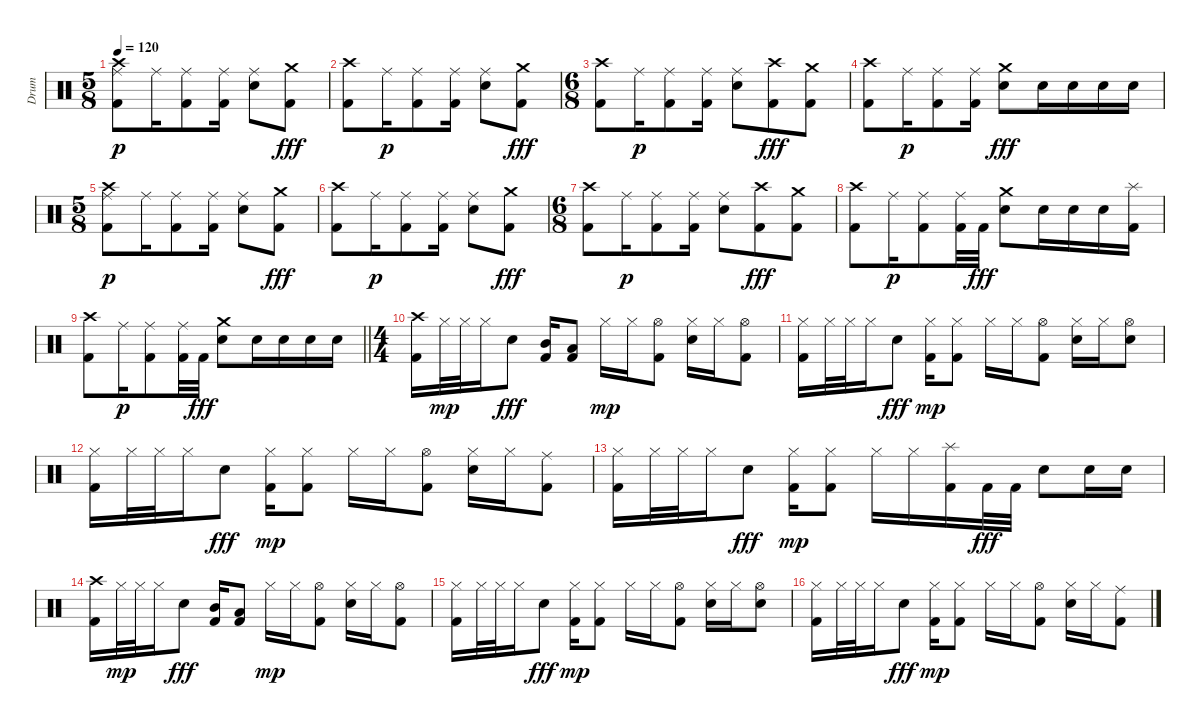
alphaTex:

\track ("Drum" "Drum") {instrument percussion}
\staff {score}
\articulation defaults
\ts (5 8)
\tempo 120
\clef neutral
\ks c
("Kick (hit) 2" "Ride (middle)" "Crash high (hit)").8{dy p} "Ride (middle)".16 ("Kick (hit) 2" "Ride (middle)").8 ("Kick (hit) 2" "Ride (middle)").16 ("Electric Snare (hit)" "Ride (middle)").8 ("Kick (hit) 2" "Crash medium (hit)").8{dy fff} |
("Kick (hit) 2" "Crash high (hit)").8 "Ride (middle)".16{dy p} ("Kick (hit) 2" "Ride (middle)").8 ("Kick (hit) 2" "Ride (middle)").16 ("Electric Snare (hit)" "Ride (middle)").8 ("Kick (hit) 2" "Crash medium (hit)").8{dy fff} |
\ts (6 8)
("Kick (hit) 2" "Crash high (hit)").8 "Ride (middle)".16{dy p} ("Kick (hit) 2" "Ride (middle)").8 ("Kick (hit) 2" "Ride (middle)").16 ("Electric Snare (hit)" "Ride (middle)").8 ("Kick (hit) 2" "Crash high (hit)").8{dy fff} ("Kick (hit) 2" "Crash medium (hit)").8 |
("Kick (hit) 2" "Crash high (hit)").8 "Ride (middle)".16{dy p} ("Kick (hit) 2" "Ride (middle)").8 ("Kick (hit) 2" "Ride (middle)").16 ("Electric Snare (hit)" "Crash medium (hit)").8{dy fff} "Electric Snare (hit)".16 "Electric Snare (hit)".16 "Electric Snare (hit)".16 "Electric Snare (hit)".16 |
\ts (5 8)
("Kick (hit) 2" "Ride (middle)" "Crash high (hit)").8{dy p} "Ride (middle)".16 ("Kick (hit) 2" "Ride (middle)").8 ("Kick (hit) 2" "Ride (middle)").16 ("Electric Snare (hit)" "Ride (middle)").8 ("Kick (hit) 2" "Crash medium (hit)").8{dy fff} |
("Kick (hit) 2" "Crash high (hit)").8 "Ride (middle)".16{dy p} ("Kick (hit) 2" "Ride (middle)").8 ("Kick (hit) 2" "Ride (middle)").16 ("Electric Snare (hit)" "Ride (middle)").8 ("Kick (hit) 2" "Crash medium (hit)").8{dy fff} |
\ts (6 8)
("Kick (hit) 2" "Crash high (hit)").8 "Ride (middle)".16{dy p} ("Kick (hit) 2" "Ride (middle)").8 ("Kick (hit) 2" "Ride (middle)").16 ("Electric Snare (hit)" "Ride (middle)").8 ("Kick (hit) 2" "Crash high (hit)").8{dy fff} ("Kick (hit) 2" "Crash medium (hit)").8 |
("Kick (hit) 2" "Crash high (hit)").8 "Ride (middle)".16{dy p} ("Kick (hit) 2" "Ride (middle)").8 ("Kick (hit) 2" "Ride (middle)").32 "Kick (hit) 2".32{dy fff} ("Electric Snare (hit)" "Crash medium (hit)").8 "Electric Snare (hit)".16 "Electric Snare (hit)".16 "Electric Snare (hit)".16 ("Kick (hit) 2" "Splash (hit)").16 |
\barLineRight lightlight
("Kick (hit) 2" "Crash high (hit)").8 "Ride (middle)".16{dy p} ("Kick (hit) 2" "Ride (middle)").8 ("Kick (hit) 2" "Ride (middle)").32 "Kick (hit) 2".32{dy fff} ("Electric Snare (hit)" "Crash medium (hit)").8 "Electric Snare (hit)".16 "Electric Snare (hit)".16 "Electric Snare (hit)".16 "Electric Snare (hit)".16 |
\ts (4 4)
("Kick (hit) 2" "Crash high (hit)").16 "Hi-Hat (closed)".32{dy mp} "Hi-Hat (closed)".32 "Hi-Hat (closed)".16 "Electric Snare (hit)".8{dy fff} ("Kick (hit) 2" "Mid Tom (hit)").16 ("Kick (hit) 2" "Low Tom (hit)").8 "Hi-Hat (closed)".16{dy mp} "Hi-Hat (closed)".16 ("Kick (hit) 2" "Hi-Hat (open)").8 ("Electric Snare (hit)" "Hi-Hat (closed)").16 "Hi-Hat (closed)".16 ("Kick (hit) 2" "Hi-Hat (open)").8 |
("Kick (hit) 2" "Hi-Hat (closed)").16 "Hi-Hat (closed)".32 "Hi-Hat (closed)".32 "Hi-Hat (closed)".16 "Electric Snare (hit)".8{dy fff} ("Kick (hit) 2" "Hi-Hat (closed)").16{dy mp} ("Kick (hit) 2" "Hi-Hat (closed)").8 "Hi-Hat (closed)".16 "Hi-Hat (closed)".16 ("Kick (hit) 2" "Hi-Hat (open)").8 ("Electric Snare (hit)" "Hi-Hat (closed)").16 "Hi-Hat (closed)".16 ("Electric Snare (hit)" "Hi-Hat (open)").8 |
("Kick (hit) 2" "Hi-Hat (closed)").16 "Hi-Hat (closed)".32 "Hi-Hat (closed)".32 "Hi-Hat (closed)".16 "Electric Snare (hit)".8{dy fff} ("Kick (hit) 2" "Hi-Hat (closed)").16{dy mp} ("Kick (hit) 2" "Hi-Hat (closed)").8 "Hi-Hat (closed)".16 "Hi-Hat (closed)".16 ("Kick (hit) 2" "Hi-Hat (open)").8 ("Electric Snare (hit)" "Hi-Hat (closed)").16 "Hi-Hat (closed)".16 ("Kick (hit) 2" "Ride (middle)").8 |
("Kick (hit) 2" "Hi-Hat (closed)").16 "Hi-Hat (closed)".32 "Hi-Hat (closed)".32 "Hi-Hat (closed)".16 "Electric Snare (hit)".8{dy fff} ("Kick (hit) 2" "Hi-Hat (closed)").16{dy mp} ("Kick (hit) 2" "Hi-Hat (closed)").8 "Hi-Hat (closed)".16 "Hi-Hat (closed)".16 ("Kick (hit) 2" "Splash (hit)").16 "Kick (hit) 2".32{dy fff} "Kick (hit) 2".32 "Electric Snare (hit)".8 "Electric Snare (hit)".16 "Electric Snare (hit)".16 |
("Kick (hit) 2" "Crash high (hit)").16 "Hi-Hat (closed)".32{dy mp} "Hi-Hat (closed)".32 "Hi-Hat (closed)".16 "Electric Snare (hit)".8{dy fff} ("Kick (hit) 2" "Mid Tom (hit)").16 ("Kick (hit) 2" "Low Tom (hit)").8 "Hi-Hat (closed)".16{dy mp} "Hi-Hat (closed)".16 ("Kick (hit) 2" "Hi-Hat (open)").8 ("Electric Snare (hit)" "Hi-Hat (closed)").16 "Hi-Hat (closed)".16 ("Kick (hit) 2" "Hi-Hat (open)").8 |
("Kick (hit) 2" "Hi-Hat (closed)").16 "Hi-Hat (closed)".32 "Hi-Hat (closed)".32 "Hi-Hat (closed)".16 "Electric Snare (hit)".8{dy fff} ("Kick (hit) 2" "Hi-Hat (closed)").16{dy mp} ("Kick (hit) 2" "Hi-Hat (closed)").8 "Hi-Hat (closed)".16 "Hi-Hat (closed)".16 ("Kick (hit) 2" "Hi-Hat (open)").8 ("Electric Snare (hit)" "Hi-Hat (closed)").16 "Hi-Hat (closed)".16 ("Electric Snare (hit)" "Hi-Hat (open)").8 |
("Kick (hit) 2" "Hi-Hat (closed)").16 "Hi-Hat (closed)".32 "Hi-Hat (closed)".32 "Hi-Hat (closed)".16 "Electric Snare (hit)".8{dy fff} ("Kick (hit) 2" "Hi-Hat (closed)").16{dy mp} ("Kick (hit) 2" "Hi-Hat (closed)").8 "Hi-Hat (closed)".16 "Hi-Hat (closed)".16 ("Kick (hit) 2" "Hi-Hat (open)").8 ("Electric Snare (hit)" "Hi-Hat (closed)").16 "Hi-Hat (closed)".16 ("Kick (hit) 2" "Ride (middle)").8
